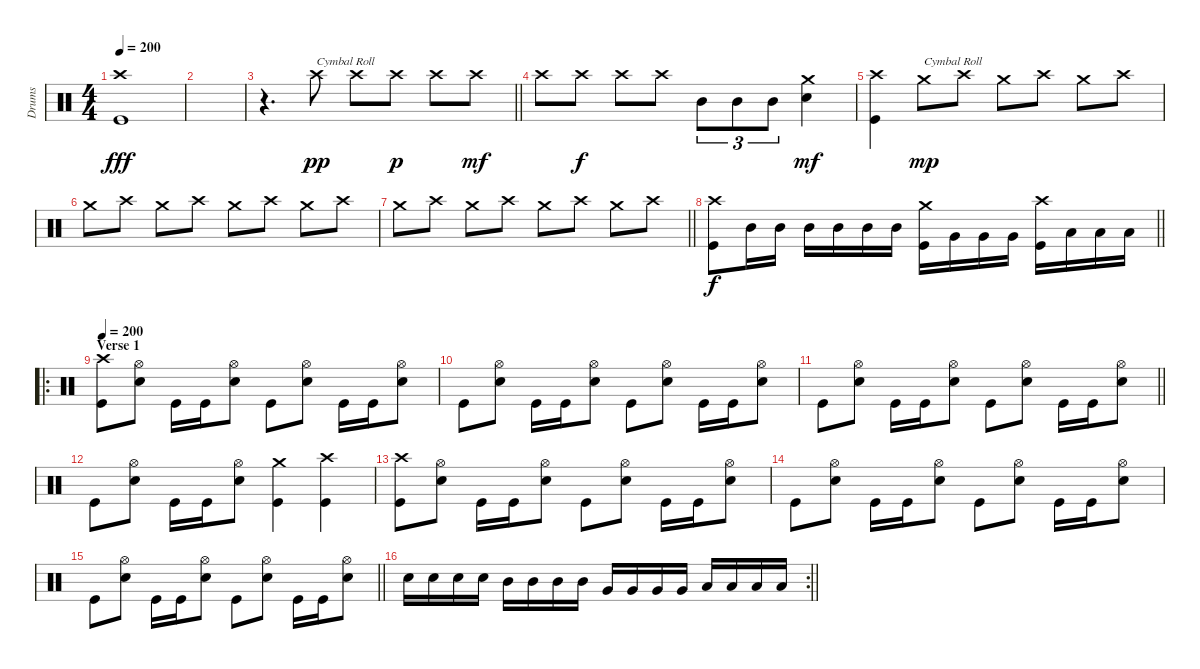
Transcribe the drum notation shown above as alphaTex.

\track ("Drums" "Drums") {instrument percussion}
\staff {score}
\articulation defaults
\ts (4 4)
\tempo 200
\clef neutral
\ks c
("Crash high (hit)" "Kick (hit)").1{dy fff} |
|
\barLineRight lightlight
r.4{d} "Crash high (hit)".8{txt "Cymbal Roll" dy pp} "Crash high (hit)".8 "Crash high (hit)".8{dy p} "Crash high (hit)".8 "Crash high (hit)".8{dy mf} |
"Crash high (hit)".8 "Crash high (hit)".8{dy f} "Crash high (hit)".8 "Crash high (hit)".8 "Mid Tom (hit)".8{tu (3 2)} "Mid Tom (hit)".8{tu (3 2)} "Mid Tom (hit)".8{tu (3 2)} ("Crash medium (hit)" "Snare (hit) 2").4{dy mf} |
("Crash high (hit)" "Kick (hit)").4 "Crash medium (hit)".8{txt "Cymbal Roll" dy mp} "Crash high (hit)".8 "Crash medium (hit)".8 "Crash high (hit)".8 "Crash medium (hit)".8 "Crash high (hit)".8 |
"Crash medium (hit)".8 "Crash high (hit)".8 "Crash medium (hit)".8 "Crash high (hit)".8 "Crash medium (hit)".8 "Crash high (hit)".8 "Crash medium (hit)".8 "Crash high (hit)".8 |
\barLineRight lightlight "Crash medium (hit)".8 "Crash high (hit)".8 "Crash medium (hit)".8 "Crash high (hit)".8 "Crash medium (hit)".8 "Crash high (hit)".8 "Crash medium (hit)".8 "Crash high (hit)".8
|
\barLineRight lightlight
("Crash high (hit)" "Kick (hit)").8{dy f} "Mid Tom (hit)".16 "Mid Tom (hit)".16 "Mid Tom (hit)".16 "Mid Tom (hit)".16 "Mid Tom (hit)".16 "Mid Tom (hit)".16 ("Crash medium (hit)" "Kick (hit)").16 "Very Low Tom (hit)".16 "Very Low Tom (hit)".16 "Very Low Tom (hit)".16 ("Crash high (hit)" "Kick (hit)").16 "Low Floor Tom (hit)".16 "Low Floor Tom (hit)".16 "Low Floor Tom (hit)".16 |
\ro
\section ("" "Verse 1")
\tempo 200
("Crash high (hit)" "Kick (hit)").8 ("Hi-Hat (open)" "Snare (hit) 2").8 "Kick (hit)".16 "Kick (hit)".16 ("Hi-Hat (open)" "Snare (hit) 2").8 "Kick (hit)".8 ("Hi-Hat (open)" "Snare (hit) 2").8 "Kick (hit)".16 "Kick (hit)".16 ("Hi-Hat (open)" "Snare (hit) 2").8 |
"Kick (hit)".8 ("Hi-Hat (open)" "Snare (hit) 2").8 "Kick (hit)".16 "Kick (hit)".16 ("Hi-Hat (open)" "Snare (hit) 2").8 "Kick (hit)".8 ("Hi-Hat (open)" "Snare (hit) 2").8 "Kick (hit)".16 "Kick (hit)".16 ("Hi-Hat (open)" "Snare (hit) 2").8 |
\barLineRight lightlight "Kick (hit)".8
("Hi-Hat (open)" "Snare (hit) 2").8 "Kick (hit)".16 "Kick (hit)".16 ("Hi-Hat (open)" "Snare (hit) 2").8 "Kick (hit)".8 ("Hi-Hat (open)" "Snare (hit) 2").8 "Kick (hit)".16 "Kick (hit)".16 ("Hi-Hat (open)" "Snare (hit) 2").8 |
"Kick (hit)".8 ("Hi-Hat (open)" "Snare (hit) 2").8 "Kick (hit)".16 "Kick (hit)".16 ("Hi-Hat (open)" "Snare (hit) 2").8 ("Crash medium (hit)" "Kick (hit)").4 ("Crash high (hit)" "Kick (hit)").4 |
("Crash high (hit)" "Kick (hit)").8 ("Hi-Hat (open)" "Snare (hit) 2").8 "Kick (hit)".16 "Kick (hit)".16 ("Hi-Hat (open)" "Snare (hit) 2").8 "Kick (hit)".8 ("Hi-Hat (open)" "Snare (hit) 2").8 "Kick (hit)".16 "Kick (hit)".16 ("Hi-Hat (open)" "Snare (hit) 2").8 |
"Kick (hit)".8 ("Hi-Hat (open)" "Snare (hit) 2").8 "Kick (hit)".16 "Kick (hit)".16 ("Hi-Hat (open)" "Snare (hit) 2").8 "Kick (hit)".8 ("Hi-Hat (open)" "Snare (hit) 2").8 "Kick (hit)".16 "Kick (hit)".16 ("Hi-Hat (open)" "Snare (hit) 2").8 |
\barLineRight lightlight "Kick (hit)".8
("Hi-Hat (open)" "Snare (hit) 2").8 "Kick (hit)".16 "Kick (hit)".16 ("Hi-Hat (open)" "Snare (hit) 2").8 "Kick (hit)".8 ("Hi-Hat (open)" "Snare (hit) 2").8 "Kick (hit)".16 "Kick (hit)".16 ("Hi-Hat (open)" "Snare (hit) 2").8 |
\rc 2
\barLineRight lightlight "Snare (hit) 2".16 "Snare (hit) 2".16 "Snare (hit) 2".16 "Snare (hit) 2".16 "Mid Tom (hit)".16 "Mid Tom (hit)".16 "Mid Tom (hit)".16 "Mid Tom (hit)".16 "Very Low Tom (hit)".16 "Very Low Tom (hit)".16 "Very Low Tom (hit)".16 "Very Low Tom (hit)".16 "Low Floor Tom (hit)".16 "Low Floor Tom (hit)".16 "Low Floor Tom (hit)".16 "Low Floor Tom (hit)".16
